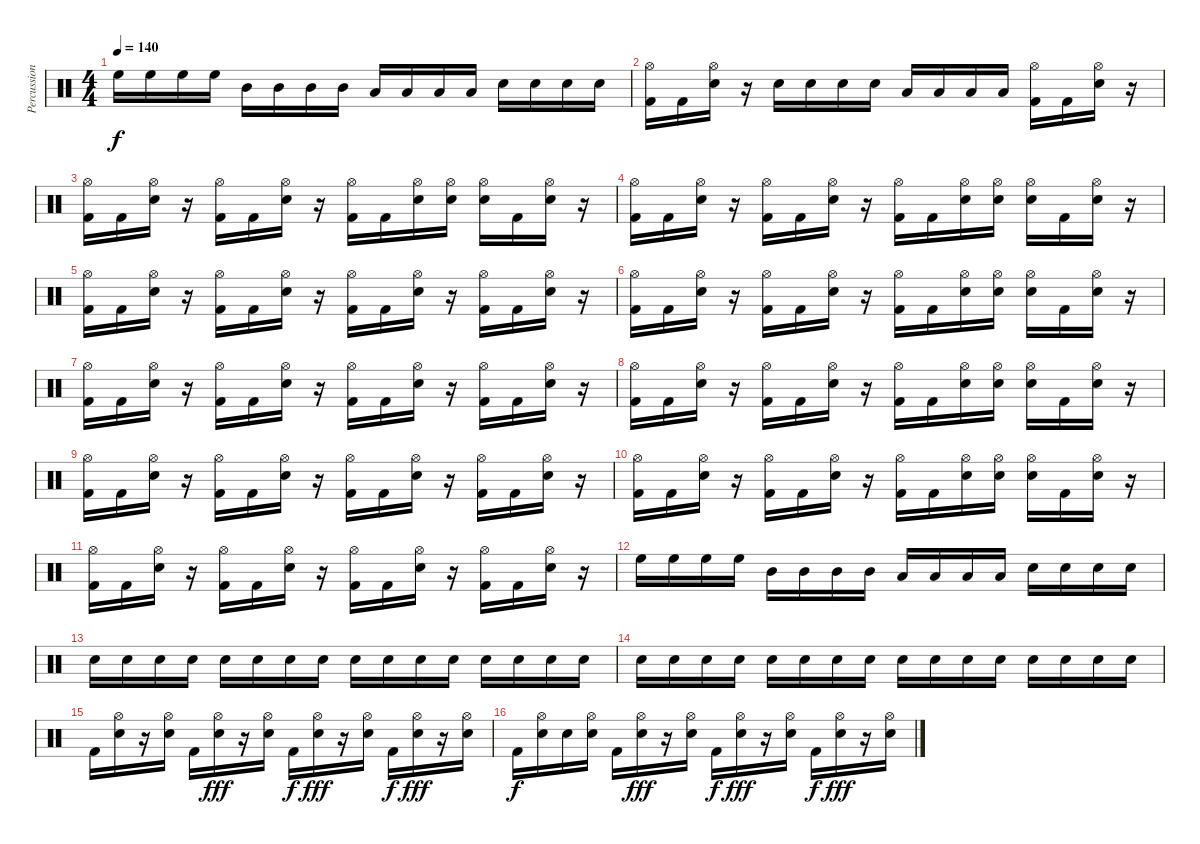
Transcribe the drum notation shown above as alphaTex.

\track ("Percussions" "Percussion") {instrument percussion}
\staff {score}
\articulation defaults
\ts (4 4)
\tempo 140
\clef neutral
\ks c "High Floor Tom (hit)".16{dy f} "High Floor Tom (hit)".16 "High Floor Tom (hit)".16 "High Floor Tom (hit)".16 "Mid Tom (hit)".16 "Mid Tom (hit)".16 "Mid Tom (hit)".16 "Mid Tom (hit)".16 "Low Tom (hit)".16 "Low Tom (hit)".16 "Low Tom (hit)".16 "Low Tom (hit)".16 "Electric Snare (hit)".16 "Electric Snare (hit)".16 "Electric Snare (hit)".16 "Electric Snare (hit)".16
|
("Kick (hit) 2" "Hi-Hat (open)").16 "Kick (hit) 2".16 ("Electric Snare (hit)" "Hi-Hat (open)").16 r.16 "Electric Snare (hit)".16 "Electric Snare (hit)".16 "Electric Snare (hit)".16 "Electric Snare (hit)".16 "Low Tom (hit)".16 "Low Tom (hit)".16 "Low Tom (hit)".16 "Low Tom (hit)".16 ("Kick (hit) 2" "Hi-Hat (open)").16 "Kick (hit) 2".16 ("Electric Snare (hit)" "Hi-Hat (open)").16 r.16 |
("Kick (hit) 2" "Hi-Hat (open)").16 "Kick (hit) 2".16 ("Electric Snare (hit)" "Hi-Hat (open)").16 r.16 ("Kick (hit) 2" "Hi-Hat (open)").16 "Kick (hit) 2".16 ("Electric Snare (hit)" "Hi-Hat (open)").16 r.16 ("Kick (hit) 2" "Hi-Hat (open)").16 "Kick (hit) 2".16 ("Electric Snare (hit)" "Hi-Hat (open)").16 ("Electric Snare (hit)" "Hi-Hat (open)").16 ("Electric Snare (hit)" "Hi-Hat (open)").16 "Kick (hit) 2".16 ("Electric Snare (hit)" "Hi-Hat (open)").16 r.16 |
("Kick (hit) 2" "Hi-Hat (open)").16 "Kick (hit) 2".16 ("Electric Snare (hit)" "Hi-Hat (open)").16 r.16 ("Kick (hit) 2" "Hi-Hat (open)").16 "Kick (hit) 2".16 ("Electric Snare (hit)" "Hi-Hat (open)").16 r.16 ("Kick (hit) 2" "Hi-Hat (open)").16 "Kick (hit) 2".16 ("Electric Snare (hit)" "Hi-Hat (open)").16 ("Electric Snare (hit)" "Hi-Hat (open)").16 ("Electric Snare (hit)" "Hi-Hat (open)").16 "Kick (hit) 2".16 ("Electric Snare (hit)" "Hi-Hat (open)").16 r.16 |
("Kick (hit) 2" "Hi-Hat (open)").16 "Kick (hit) 2".16 ("Electric Snare (hit)" "Hi-Hat (open)").16 r.16 ("Kick (hit) 2" "Hi-Hat (open)").16 "Kick (hit) 2".16 ("Electric Snare (hit)" "Hi-Hat (open)").16 r.16 ("Kick (hit) 2" "Hi-Hat (open)").16 "Kick (hit) 2".16 ("Electric Snare (hit)" "Hi-Hat (open)").16 r.16 ("Kick (hit) 2" "Hi-Hat (open)").16 "Kick (hit) 2".16 ("Electric Snare (hit)" "Hi-Hat (open)").16 r.16 |
("Kick (hit) 2" "Hi-Hat (open)").16 "Kick (hit) 2".16 ("Electric Snare (hit)" "Hi-Hat (open)").16 r.16 ("Kick (hit) 2" "Hi-Hat (open)").16 "Kick (hit) 2".16 ("Electric Snare (hit)" "Hi-Hat (open)").16 r.16 ("Kick (hit) 2" "Hi-Hat (open)").16 "Kick (hit) 2".16 ("Electric Snare (hit)" "Hi-Hat (open)").16 ("Electric Snare (hit)" "Hi-Hat (open)").16 ("Electric Snare (hit)" "Hi-Hat (open)").16 "Kick (hit) 2".16 ("Electric Snare (hit)" "Hi-Hat (open)").16 r.16 |
("Kick (hit) 2" "Hi-Hat (open)").16 "Kick (hit) 2".16 ("Electric Snare (hit)" "Hi-Hat (open)").16 r.16 ("Kick (hit) 2" "Hi-Hat (open)").16 "Kick (hit) 2".16 ("Electric Snare (hit)" "Hi-Hat (open)").16 r.16 ("Kick (hit) 2" "Hi-Hat (open)").16 "Kick (hit) 2".16 ("Electric Snare (hit)" "Hi-Hat (open)").16 r.16 ("Kick (hit) 2" "Hi-Hat (open)").16 "Kick (hit) 2".16 ("Electric Snare (hit)" "Hi-Hat (open)").16 r.16 |
("Kick (hit) 2" "Hi-Hat (open)").16 "Kick (hit) 2".16 ("Electric Snare (hit)" "Hi-Hat (open)").16 r.16 ("Kick (hit) 2" "Hi-Hat (open)").16 "Kick (hit) 2".16 ("Electric Snare (hit)" "Hi-Hat (open)").16 r.16 ("Kick (hit) 2" "Hi-Hat (open)").16 "Kick (hit) 2".16 ("Electric Snare (hit)" "Hi-Hat (open)").16 ("Electric Snare (hit)" "Hi-Hat (open)").16 ("Electric Snare (hit)" "Hi-Hat (open)").16 "Kick (hit) 2".16 ("Electric Snare (hit)" "Hi-Hat (open)").16 r.16 |
("Kick (hit) 2" "Hi-Hat (open)").16 "Kick (hit) 2".16 ("Electric Snare (hit)" "Hi-Hat (open)").16 r.16 ("Kick (hit) 2" "Hi-Hat (open)").16 "Kick (hit) 2".16 ("Electric Snare (hit)" "Hi-Hat (open)").16 r.16 ("Kick (hit) 2" "Hi-Hat (open)").16 "Kick (hit) 2".16 ("Electric Snare (hit)" "Hi-Hat (open)").16 r.16 ("Kick (hit) 2" "Hi-Hat (open)").16 "Kick (hit) 2".16 ("Electric Snare (hit)" "Hi-Hat (open)").16 r.16 |
("Kick (hit) 2" "Hi-Hat (open)").16 "Kick (hit) 2".16 ("Electric Snare (hit)" "Hi-Hat (open)").16 r.16 ("Kick (hit) 2" "Hi-Hat (open)").16 "Kick (hit) 2".16 ("Electric Snare (hit)" "Hi-Hat (open)").16 r.16 ("Kick (hit) 2" "Hi-Hat (open)").16 "Kick (hit) 2".16 ("Electric Snare (hit)" "Hi-Hat (open)").16 ("Electric Snare (hit)" "Hi-Hat (open)").16 ("Electric Snare (hit)" "Hi-Hat (open)").16 "Kick (hit) 2".16 ("Electric Snare (hit)" "Hi-Hat (open)").16 r.16 |
("Kick (hit) 2" "Hi-Hat (open)").16 "Kick (hit) 2".16 ("Electric Snare (hit)" "Hi-Hat (open)").16 r.16 ("Kick (hit) 2" "Hi-Hat (open)").16 "Kick (hit) 2".16 ("Electric Snare (hit)" "Hi-Hat (open)").16 r.16 ("Kick (hit) 2" "Hi-Hat (open)").16 "Kick (hit) 2".16 ("Electric Snare (hit)" "Hi-Hat (open)").16 r.16 ("Kick (hit) 2" "Hi-Hat (open)").16 "Kick (hit) 2".16 ("Electric Snare (hit)" "Hi-Hat (open)").16 r.16 |
"High Floor Tom (hit)".16 "High Floor Tom (hit)".16 "High Floor Tom (hit)".16 "High Floor Tom (hit)".16 "Mid Tom (hit)".16 "Mid Tom (hit)".16 "Mid Tom (hit)".16 "Mid Tom (hit)".16 "Low Tom (hit)".16 "Low Tom (hit)".16 "Low Tom (hit)".16 "Low Tom (hit)".16 "Electric Snare (hit)".16 "Electric Snare (hit)".16 "Electric Snare (hit)".16 "Electric Snare (hit)".16 |
"Electric Snare (hit)".16{volume 16} "Electric Snare (hit)".16{volume 10} "Electric Snare (hit)".16 "Electric Snare (hit)".16 "Electric Snare (hit)".16{volume 16} "Electric Snare (hit)".16{volume 10} "Electric Snare (hit)".16 "Electric Snare (hit)".16 "Electric Snare (hit)".16{volume 16} "Electric Snare (hit)".16{volume 10} "Electric Snare (hit)".16 "Electric Snare (hit)".16 "Electric Snare (hit)".16 "Electric Snare (hit)".16 "Electric Snare (hit)".16 "Electric Snare (hit)".16 |
"Electric Snare (hit)".16{volume 16} "Electric Snare (hit)".16{volume 10} "Electric Snare (hit)".16 "Electric Snare (hit)".16 "Electric Snare (hit)".16{volume 16} "Electric Snare (hit)".16{volume 10} "Electric Snare (hit)".16 "Electric Snare (hit)".16 "Electric Snare (hit)".16{volume 16} "Electric Snare (hit)".16{volume 10} "Electric Snare (hit)".16 "Electric Snare (hit)".16 "Electric Snare (hit)".16 "Electric Snare (hit)".16 "Electric Snare (hit)".16 "Electric Snare (hit)".16 |
"Kick (hit) 2".16{volume 13} ("Electric Snare (hit)" "Hi-Hat (open)").16 r.16 ("Electric Snare (hit)" "Hi-Hat (open)").16 "Kick (hit) 2".16 ("Electric Snare (hit)" "Hi-Hat (open)").16{dy fff} r.16 ("Electric Snare (hit)" "Hi-Hat (open)").16 "Kick (hit) 2".16{dy f} ("Electric Snare (hit)" "Hi-Hat (open)").16{dy fff} r.16 ("Electric Snare (hit)" "Hi-Hat (open)").16 "Kick (hit) 2".16{dy f} ("Electric Snare (hit)" "Hi-Hat (open)").16{dy fff} r.16 ("Electric Snare (hit)" "Hi-Hat (open)").16 |
"Kick (hit) 2".16{dy f volume 13} ("Electric Snare (hit)" "Hi-Hat (open)").16 "Electric Snare (hit)".16 ("Electric Snare (hit)" "Hi-Hat (open)").16 "Kick (hit) 2".16 ("Electric Snare (hit)" "Hi-Hat (open)").16{dy fff} r.16 ("Electric Snare (hit)" "Hi-Hat (open)").16 "Kick (hit) 2".16{dy f} ("Electric Snare (hit)" "Hi-Hat (open)").16{dy fff} r.16 ("Electric Snare (hit)" "Hi-Hat (open)").16 "Kick (hit) 2".16{dy f} ("Electric Snare (hit)" "Hi-Hat (open)").16{dy fff} r.16 ("Electric Snare (hit)" "Hi-Hat (open)").16
